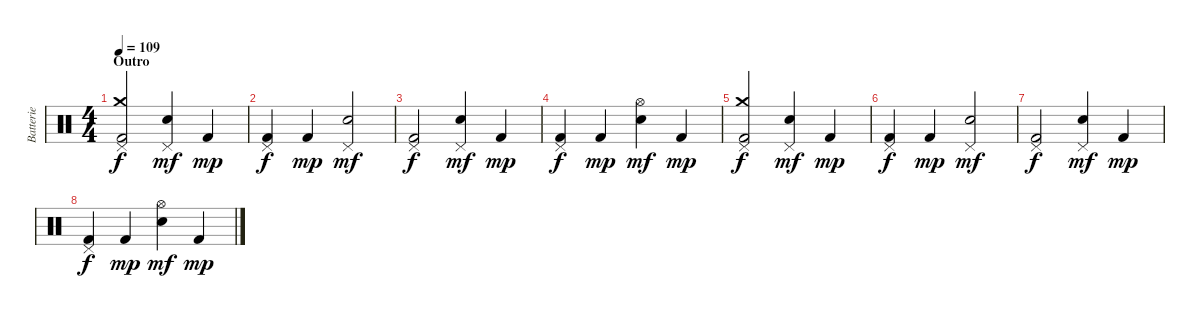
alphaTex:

\track ("Batterie" "Batterie") {instrument percussion}
\staff {score}
\articulation defaults
\ts (4 4)
\section ("" "Outro")
\tempo 109
\clef neutral
\ks c
("Pedal Hi-Hat (hit)" "Crash medium (hit)" "Kick (hit) 2").2{dy f} ("Pedal Hi-Hat (hit)" "Electric Snare (hit)").4{dy mf} "Kick (hit) 2".4{dy mp} |
("Pedal Hi-Hat (hit)" "Kick (hit) 2").4{dy f} "Kick (hit) 2".4{dy mp} ("Pedal Hi-Hat (hit)" "Electric Snare (hit)").2{dy mf} |
("Pedal Hi-Hat (hit)" "Kick (hit) 2").2{dy f} ("Pedal Hi-Hat (hit)" "Electric Snare (hit)").4{dy mf} "Kick (hit) 2".4{dy mp} |
("Pedal Hi-Hat (hit)" "Kick (hit) 2").4{dy f} "Kick (hit) 2".4{dy mp} ("Hi-Hat (open)" "Electric Snare (hit)").4{dy mf} "Kick (hit) 2".4{dy mp} |
("Pedal Hi-Hat (hit)" "Crash medium (hit)" "Kick (hit) 2").2{dy f} ("Pedal Hi-Hat (hit)" "Electric Snare (hit)").4{dy mf} "Kick (hit) 2".4{dy mp} |
("Pedal Hi-Hat (hit)" "Kick (hit) 2").4{dy f} "Kick (hit) 2".4{dy mp} ("Pedal Hi-Hat (hit)" "Electric Snare (hit)").2{dy mf} |
("Pedal Hi-Hat (hit)" "Kick (hit) 2").2{dy f} ("Pedal Hi-Hat (hit)" "Electric Snare (hit)").4{dy mf} "Kick (hit) 2".4{dy mp} |
("Pedal Hi-Hat (hit)" "Kick (hit) 2").4{dy f} "Kick (hit) 2".4{dy mp} ("Hi-Hat (open)" "Electric Snare (hit)").4{dy mf} "Kick (hit) 2".4{dy mp}
